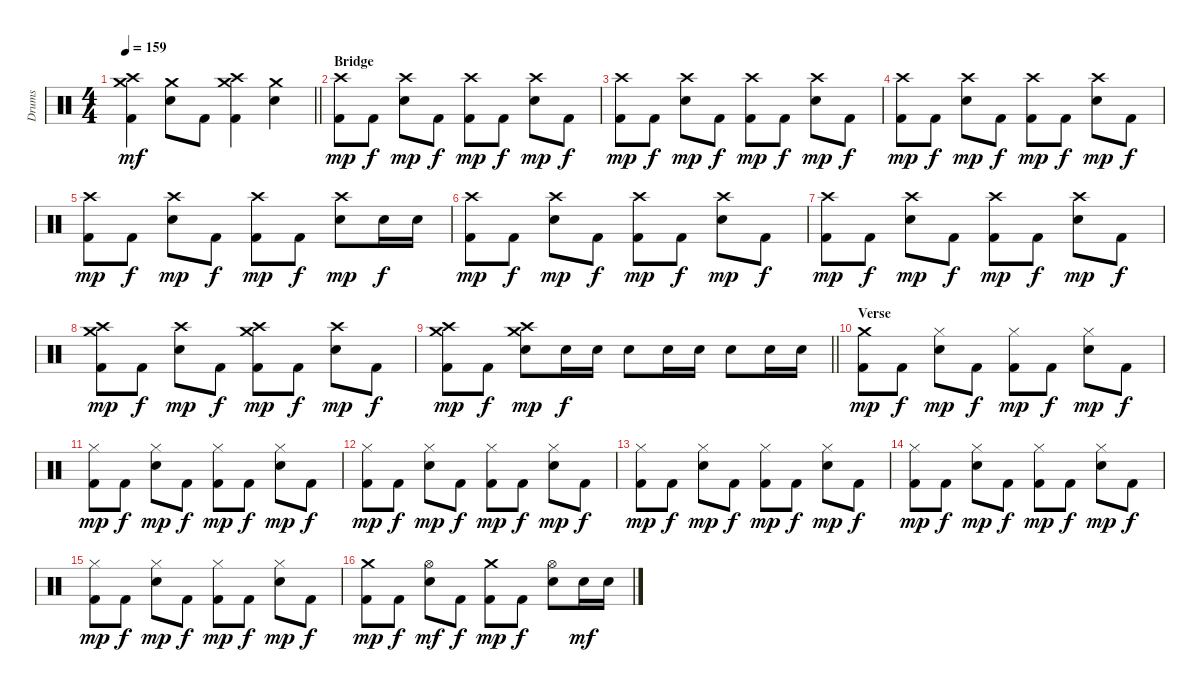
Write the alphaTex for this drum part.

\track ("Drums" "Drums") {instrument percussion}
\staff {score}
\articulation defaults
\ts (4 4)
\tempo 159
\clef neutral
\barLineRight lightlight
\ks c
("Crash high (hit)" "Crash medium (hit)" "Kick (hit) 2").4{dy mf} ("Crash medium (hit)" "Electric Snare (hit)").8 "Kick (hit) 2".8 ("Crash high (hit)" "Crash medium (hit)" "Kick (hit) 2").4 ("Crash medium (hit)" "Electric Snare (hit)").4 |
\section ("" "Bridge")
("Crash high (hit)" "Kick (hit) 2").8{dy mp} "Kick (hit) 2".8{dy f} ("Crash high (hit)" "Electric Snare (hit)").8{dy mp} "Kick (hit) 2".8{dy f} ("Crash high (hit)" "Kick (hit) 2").8{dy mp} "Kick (hit) 2".8{dy f} ("Crash high (hit)" "Electric Snare (hit)").8{dy mp} "Kick (hit) 2".8{dy f} |
("Crash high (hit)" "Kick (hit) 2").8{dy mp} "Kick (hit) 2".8{dy f} ("Crash high (hit)" "Electric Snare (hit)").8{dy mp} "Kick (hit) 2".8{dy f} ("Crash high (hit)" "Kick (hit) 2").8{dy mp} "Kick (hit) 2".8{dy f} ("Crash high (hit)" "Electric Snare (hit)").8{dy mp} "Kick (hit) 2".8{dy f} |
("Crash high (hit)" "Kick (hit) 2").8{dy mp} "Kick (hit) 2".8{dy f} ("Crash high (hit)" "Electric Snare (hit)").8{dy mp} "Kick (hit) 2".8{dy f} ("Crash high (hit)" "Kick (hit) 2").8{dy mp} "Kick (hit) 2".8{dy f} ("Crash high (hit)" "Electric Snare (hit)").8{dy mp} "Kick (hit) 2".8{dy f} |
("Crash high (hit)" "Kick (hit) 2").8{dy mp} "Kick (hit) 2".8{dy f} ("Crash high (hit)" "Electric Snare (hit)").8{dy mp} "Kick (hit) 2".8{dy f} ("Crash high (hit)" "Kick (hit) 2").8{dy mp} "Kick (hit) 2".8{dy f} ("Crash high (hit)" "Electric Snare (hit)").8{dy mp} "Electric Snare (hit)".16{dy f} "Electric Snare (hit)".16 |
("Crash high (hit)" "Kick (hit) 2").8{dy mp} "Kick (hit) 2".8{dy f} ("Crash high (hit)" "Electric Snare (hit)").8{dy mp} "Kick (hit) 2".8{dy f} ("Crash high (hit)" "Kick (hit) 2").8{dy mp} "Kick (hit) 2".8{dy f} ("Crash high (hit)" "Electric Snare (hit)").8{dy mp} "Kick (hit) 2".8{dy f} |
("Crash high (hit)" "Kick (hit) 2").8{dy mp} "Kick (hit) 2".8{dy f} ("Crash high (hit)" "Electric Snare (hit)").8{dy mp} "Kick (hit) 2".8{dy f} ("Crash high (hit)" "Kick (hit) 2").8{dy mp} "Kick (hit) 2".8{dy f} ("Crash high (hit)" "Electric Snare (hit)").8{dy mp} "Kick (hit) 2".8{dy f} |
("Crash high (hit)" "Crash medium (hit)" "Kick (hit) 2").8{dy mp} "Kick (hit) 2".8{dy f} ("Crash high (hit)" "Electric Snare (hit)").8{dy mp} "Kick (hit) 2".8{dy f} ("Crash high (hit)" "Crash medium (hit)" "Kick (hit) 2").8{dy mp} "Kick (hit) 2".8{dy f} ("Crash high (hit)" "Electric Snare (hit)").8{dy mp} "Kick (hit) 2".8{dy f} |
\barLineRight lightlight
("Crash high (hit)" "Crash medium (hit)" "Kick (hit) 2").8{dy mp} "Kick (hit) 2".8{dy f} ("Crash high (hit)" "Crash medium (hit)" "Electric Snare (hit)").8{dy mp} "Electric Snare (hit)".16{dy f} "Electric Snare (hit)".16 "Electric Snare (hit)".8 "Electric Snare (hit)".16 "Electric Snare (hit)".16 "Electric Snare (hit)".8 "Electric Snare (hit)".16 "Electric Snare (hit)".16 |
\section ("" "Verse")
("Crash medium (hit)" "Kick (hit) 2").8{dy mp} "Kick (hit) 2".8{dy f} ("Hi-Hat (closed)" "Electric Snare (hit)").8{dy mp} "Kick (hit) 2".8{dy f} ("Hi-Hat (closed)" "Kick (hit) 2").8{dy mp} "Kick (hit) 2".8{dy f} ("Hi-Hat (closed)" "Electric Snare (hit)").8{dy mp} "Kick (hit) 2".8{dy f} |
("Hi-Hat (closed)" "Kick (hit) 2").8{dy mp} "Kick (hit) 2".8{dy f} ("Hi-Hat (closed)" "Electric Snare (hit)").8{dy mp} "Kick (hit) 2".8{dy f} ("Hi-Hat (closed)" "Kick (hit) 2").8{dy mp} "Kick (hit) 2".8{dy f} ("Hi-Hat (closed)" "Electric Snare (hit)").8{dy mp} "Kick (hit) 2".8{dy f} |
("Hi-Hat (closed)" "Kick (hit) 2").8{dy mp} "Kick (hit) 2".8{dy f} ("Hi-Hat (closed)" "Electric Snare (hit)").8{dy mp} "Kick (hit) 2".8{dy f} ("Hi-Hat (closed)" "Kick (hit) 2").8{dy mp} "Kick (hit) 2".8{dy f} ("Hi-Hat (closed)" "Electric Snare (hit)").8{dy mp} "Kick (hit) 2".8{dy f} |
("Hi-Hat (closed)" "Kick (hit) 2").8{dy mp} "Kick (hit) 2".8{dy f} ("Hi-Hat (closed)" "Electric Snare (hit)").8{dy mp} "Kick (hit) 2".8{dy f} ("Hi-Hat (closed)" "Kick (hit) 2").8{dy mp} "Kick (hit) 2".8{dy f} ("Hi-Hat (closed)" "Electric Snare (hit)").8{dy mp} "Kick (hit) 2".8{dy f} |
("Hi-Hat (closed)" "Kick (hit) 2").8{dy mp} "Kick (hit) 2".8{dy f} ("Hi-Hat (closed)" "Electric Snare (hit)").8{dy mp} "Kick (hit) 2".8{dy f} ("Hi-Hat (closed)" "Kick (hit) 2").8{dy mp} "Kick (hit) 2".8{dy f} ("Hi-Hat (closed)" "Electric Snare (hit)").8{dy mp} "Kick (hit) 2".8{dy f} |
("Hi-Hat (closed)" "Kick (hit) 2").8{dy mp} "Kick (hit) 2".8{dy f} ("Hi-Hat (closed)" "Electric Snare (hit)").8{dy mp} "Kick (hit) 2".8{dy f} ("Hi-Hat (closed)" "Kick (hit) 2").8{dy mp} "Kick (hit) 2".8{dy f} ("Hi-Hat (closed)" "Electric Snare (hit)").8{dy mp} "Kick (hit) 2".8{dy f} |
("Crash medium (hit)" "Kick (hit) 2").8{dy mp} "Kick (hit) 2".8{dy f} ("Hi-Hat (open)" "Electric Snare (hit)").8{dy mf} "Kick (hit) 2".8{dy f} ("Crash medium (hit)" "Kick (hit) 2").8{dy mp} "Kick (hit) 2".8{dy f} ("Hi-Hat (open)" "Electric Snare (hit)").8 "Electric Snare (hit)".16{dy mf} "Electric Snare (hit)".16
